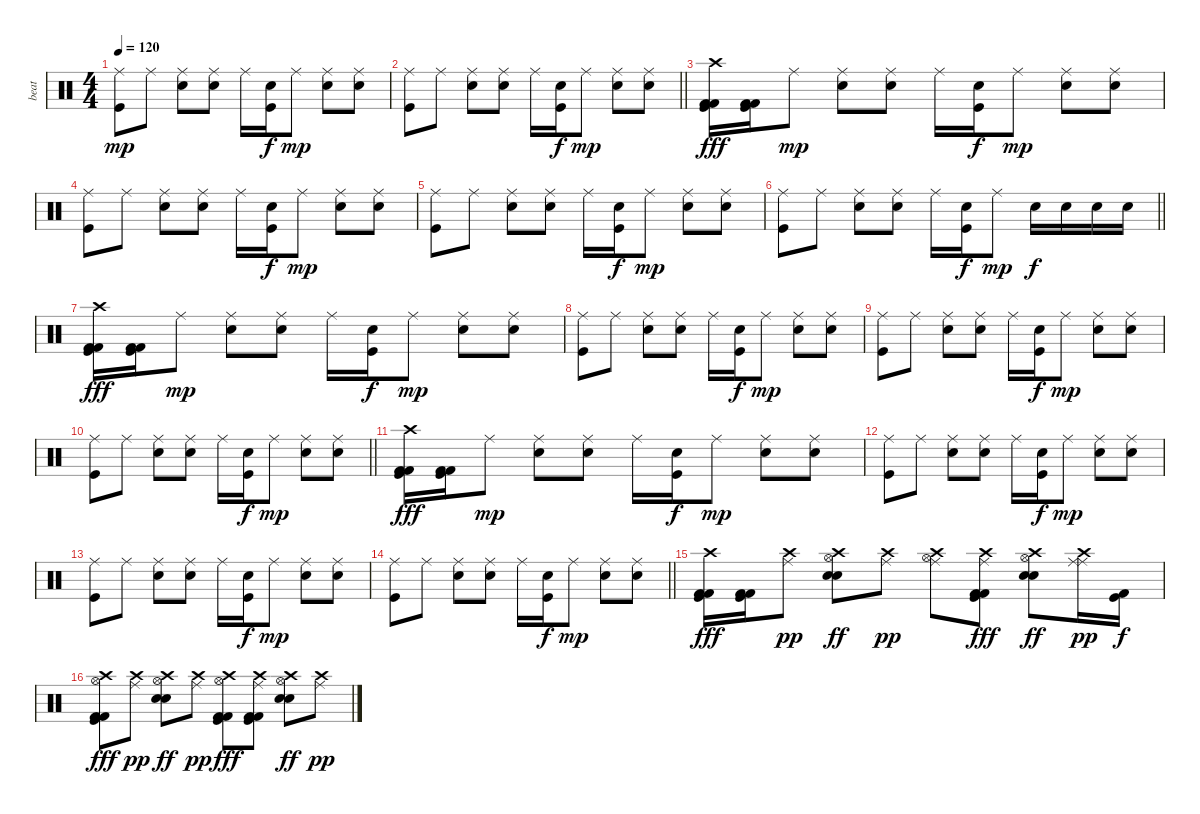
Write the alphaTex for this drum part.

\track ("beat" "beat") {instrument percussion}
\staff {score}
\articulation defaults
\ts (4 4)
\tempo 120
\clef neutral
\ks c
("Ride (middle)" "Kick (hit)").8{dy mp} "Ride (middle)".8 ("Ride (middle)" "Snare (hit) 2").8 ("Ride (middle)" "Snare (hit) 2").8 "Ride (middle)".16 ("Kick (hit)" "Snare (hit) 2").16{dy f} "Ride (middle)".8{dy mp} ("Ride (middle)" "Snare (hit) 2").8 ("Ride (middle)" "Snare (hit) 2").8 |
\barLineRight lightlight
("Ride (middle)" "Kick (hit)").8 "Ride (middle)".8 ("Ride (middle)" "Snare (hit) 2").8 ("Ride (middle)" "Snare (hit) 2").8 "Ride (middle)".16 ("Kick (hit)" "Snare (hit) 2").16{dy f} "Ride (middle)".8{dy mp} ("Ride (middle)" "Snare (hit) 2").8 ("Ride (middle)" "Snare (hit) 2").8 |
("Crash high (hit)" "Kick (hit) 2" "Kick (hit) 2" "Kick (hit)").16{dy fff} ("Kick (hit) 2" "Kick (hit) 2" "Kick (hit)").16 "Ride (middle)".8{dy mp} ("Ride (middle)" "Snare (hit) 2").8 ("Ride (middle)" "Snare (hit) 2").8 "Ride (middle)".16 ("Kick (hit)" "Snare (hit) 2").16{dy f} "Ride (middle)".8{dy mp} ("Ride (middle)" "Snare (hit) 2").8 ("Ride (middle)" "Snare (hit) 2").8 |
("Ride (middle)" "Kick (hit)").8 "Ride (middle)".8 ("Ride (middle)" "Snare (hit) 2").8 ("Ride (middle)" "Snare (hit) 2").8 "Ride (middle)".16 ("Kick (hit)" "Snare (hit) 2").16{dy f} "Ride (middle)".8{dy mp} ("Ride (middle)" "Snare (hit) 2").8 ("Ride (middle)" "Snare (hit) 2").8 |
("Ride (middle)" "Kick (hit)").8 "Ride (middle)".8 ("Ride (middle)" "Snare (hit) 2").8 ("Ride (middle)" "Snare (hit) 2").8 "Ride (middle)".16 ("Kick (hit)" "Snare (hit) 2").16{dy f} "Ride (middle)".8{dy mp} ("Ride (middle)" "Snare (hit) 2").8 ("Ride (middle)" "Snare (hit) 2").8 |
\barLineRight lightlight
("Ride (middle)" "Kick (hit)").8 "Ride (middle)".8 ("Ride (middle)" "Snare (hit) 2").8 ("Ride (middle)" "Snare (hit) 2").8 "Ride (middle)".16 ("Kick (hit)" "Snare (hit) 2").16{dy f} "Ride (middle)".8{dy mp} "Hand Clap (hit)".16{dy f} "Hand Clap (hit)".16 "Hand Clap (hit)".16 "Hand Clap (hit)".16 |
("Crash high (hit)" "Kick (hit) 2" "Kick (hit) 2" "Kick (hit)").16{dy fff} ("Kick (hit) 2" "Kick (hit) 2" "Kick (hit)").16 "Ride (middle)".8{dy mp} ("Ride (middle)" "Snare (hit) 2").8 ("Ride (middle)" "Snare (hit) 2").8 "Ride (middle)".16 ("Kick (hit)" "Snare (hit) 2").16{dy f} "Ride (middle)".8{dy mp} ("Ride (middle)" "Snare (hit) 2").8 ("Ride (middle)" "Snare (hit) 2").8 |
("Ride (middle)" "Kick (hit)").8 "Ride (middle)".8 ("Ride (middle)" "Snare (hit) 2").8 ("Ride (middle)" "Snare (hit) 2").8 "Ride (middle)".16 ("Kick (hit)" "Snare (hit) 2").16{dy f} "Ride (middle)".8{dy mp} ("Ride (middle)" "Snare (hit) 2").8 ("Ride (middle)" "Snare (hit) 2").8 |
("Ride (middle)" "Kick (hit)").8 "Ride (middle)".8 ("Ride (middle)" "Snare (hit) 2").8 ("Ride (middle)" "Snare (hit) 2").8 "Ride (middle)".16 ("Kick (hit)" "Snare (hit) 2").16{dy f} "Ride (middle)".8{dy mp} ("Ride (middle)" "Snare (hit) 2").8 ("Ride (middle)" "Snare (hit) 2").8 |
\barLineRight lightlight
("Ride (middle)" "Kick (hit)").8 "Ride (middle)".8 ("Ride (middle)" "Snare (hit) 2").8 ("Ride (middle)" "Snare (hit) 2").8 "Ride (middle)".16 ("Kick (hit)" "Snare (hit) 2").16{dy f} "Ride (middle)".8{dy mp} ("Ride (middle)" "Snare (hit) 2").8 ("Ride (middle)" "Snare (hit) 2").8 |
("Crash high (hit)" "Kick (hit) 2" "Kick (hit) 2" "Kick (hit)").16{dy fff} ("Kick (hit) 2" "Kick (hit) 2" "Kick (hit)").16 "Ride (middle)".8{dy mp} ("Ride (middle)" "Snare (hit) 2").8 ("Ride (middle)" "Snare (hit) 2").8 "Ride (middle)".16 ("Kick (hit)" "Snare (hit) 2").16{dy f} "Ride (middle)".8{dy mp} ("Ride (middle)" "Snare (hit) 2").8 ("Ride (middle)" "Snare (hit) 2").8 |
("Ride (middle)" "Kick (hit)").8 "Ride (middle)".8 ("Ride (middle)" "Snare (hit) 2").8 ("Ride (middle)" "Snare (hit) 2").8 "Ride (middle)".16 ("Kick (hit)" "Snare (hit) 2").16{dy f} "Ride (middle)".8{dy mp} ("Ride (middle)" "Snare (hit) 2").8 ("Ride (middle)" "Snare (hit) 2").8 |
("Ride (middle)" "Kick (hit)").8 "Ride (middle)".8 ("Ride (middle)" "Snare (hit) 2").8 ("Ride (middle)" "Snare (hit) 2").8 "Ride (middle)".16 ("Kick (hit)" "Snare (hit) 2").16{dy f} "Ride (middle)".8{dy mp} ("Ride (middle)" "Snare (hit) 2").8 ("Ride (middle)" "Snare (hit) 2").8 |
\barLineRight lightlight
("Ride (middle)" "Kick (hit)").8 "Ride (middle)".8 ("Ride (middle)" "Snare (hit) 2").8 ("Ride (middle)" "Snare (hit) 2").8 "Ride (middle)".16 ("Kick (hit)" "Snare (hit) 2").16{dy f} "Ride (middle)".8{dy mp} ("Ride (middle)" "Snare (hit) 2").8 ("Ride (middle)" "Snare (hit) 2").8 |
("Crash high (hit)" "Kick (hit) 2" "Kick (hit) 2" "Kick (hit)").16{dy fff} ("Kick (hit) 2" "Kick (hit) 2" "Kick (hit)").16 ("Crash high (hit)" "Ride (middle)").8{dy pp} ("Crash high (hit)" "Hi-Hat (open)" "Snare (hit) 2" "Electric Snare (hit)").8{dy ff} ("Crash high (hit)" "Ride (middle)").8{dy pp} ("Crash high (hit)" "Hi-Hat (open)" "Ride (middle)").8 ("Crash high (hit)" "Ride (middle)" "Kick (hit) 2" "Kick (hit) 2" "Kick (hit)").8{dy fff} ("Crash high (hit)" "Hi-Hat (open)" "Snare (hit) 2" "Electric Snare (hit)").8{dy ff} ("Crash high (hit)" "Ride (middle)" "Ride (middle)").16{dy pp} ("Kick (hit) 2" "Kick (hit)").16{dy f} |
("Crash high (hit)" "Hi-Hat (open)" "Kick (hit) 2" "Kick (hit) 2" "Kick (hit)").8{dy fff} ("Crash high (hit)" "Ride (middle)").8{dy pp} ("Crash high (hit)" "Hi-Hat (open)" "Snare (hit) 2" "Electric Snare (hit)").8{dy ff} ("Crash high (hit)" "Ride (middle)").8{dy pp} ("Crash high (hit)" "Hi-Hat (open)" "Kick (hit) 2" "Kick (hit) 2" "Kick (hit)").8{dy fff} ("Crash high (hit)" "Ride (middle)" "Kick (hit) 2" "Kick (hit) 2" "Kick (hit)").8 ("Crash high (hit)" "Hi-Hat (open)" "Snare (hit) 2" "Electric Snare (hit)").8{dy ff} ("Crash high (hit)" "Ride (middle)").8{dy pp}
